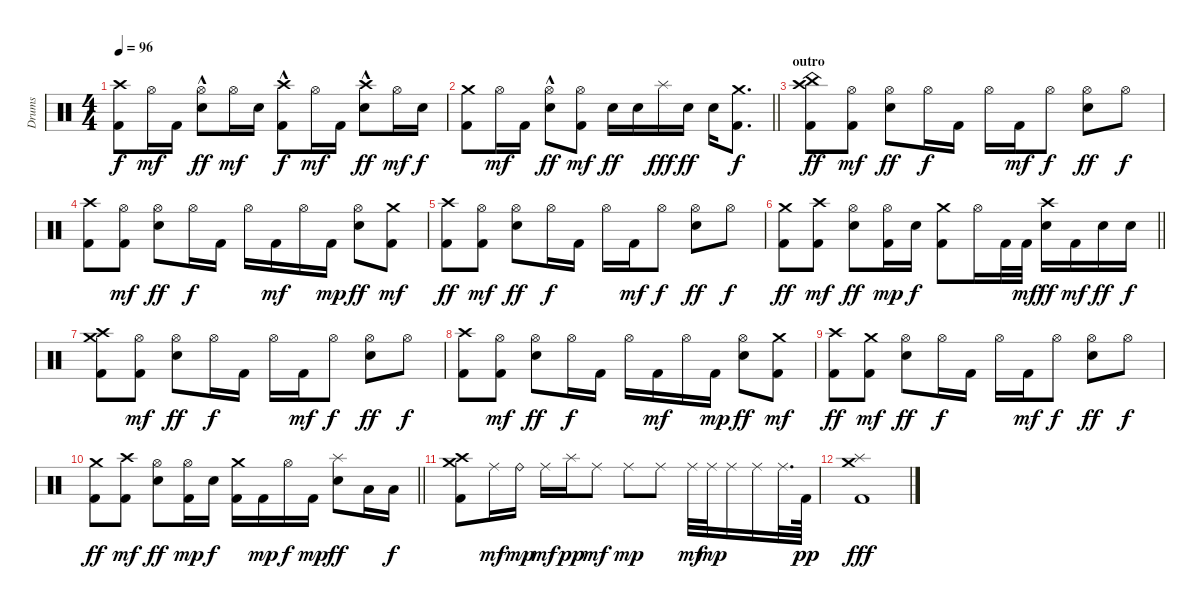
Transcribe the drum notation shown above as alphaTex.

\track ("Drums" "Drums") {instrument percussion}
\staff {score}
\articulation defaults
\ts (4 4)
\tempo 96
\clef neutral
\ks c
("Crash high (hit)" "Kick (hit) 2").8{dy f} "Hi-Hat (open)".16{dy mf} "Kick (hit) 2".16 ("Hi-Hat (open)"{hac} "Electric Snare (hit)").8{dy ff} "Hi-Hat (open)".16{dy mf} "Electric Snare (hit)".16 ("Crash high (hit)"{hac} "Kick (hit) 2").8{dy f} "Hi-Hat (open)".16{dy mf} "Kick (hit) 2".16 ("Crash high (hit)"{hac} "Electric Snare (hit)").8{dy ff} "Hi-Hat (open)".16{dy mf} "Electric Snare (hit)".16{dy f} |
\barLineRight lightlight
("Crash medium (hit)" "Kick (hit) 2").8 "Hi-Hat (open)".16{dy mf} "Kick (hit) 2".16 ("Hi-Hat (open)"{hac} "Electric Snare (hit)").8{dy ff} ("Hi-Hat (open)" "Kick (hit) 2").8{dy mf} "Electric Snare (hit)".16{dy ff} "Electric Snare (hit)".16 "Splash (hit)".16{dy fff} "Electric Snare (hit)".16{dy ff} "Electric Snare (hit)".16 ("Crash medium (hit)" "Kick (hit) 2").8{d dy f} |
\section ("" "outro")
("China (hit)" "Crash high (hit)" "Kick (hit) 2").8{dy ff} ("Hi-Hat (open)" "Kick (hit) 2").8{dy mf} ("Hi-Hat (open)" "Electric Snare (hit)").8{dy ff} "Hi-Hat (open)".16{dy f} "Kick (hit) 2".16 "Hi-Hat (open)".16 "Kick (hit) 2".16{dy mf} "Hi-Hat (open)".8{dy f} ("Hi-Hat (open)" "Electric Snare (hit)").8{dy ff} "Hi-Hat (open)".8{dy f} |
("Crash high (hit)" "Kick (hit) 2").8 ("Hi-Hat (open)" "Kick (hit) 2").8{dy mf} ("Hi-Hat (open)" "Electric Snare (hit)").8{dy ff} "Hi-Hat (open)".16{dy f} "Kick (hit) 2".16 "Hi-Hat (open)".16 "Kick (hit) 2".16{dy mf} "Hi-Hat (open)".16 "Kick (hit) 2".16{dy mp} ("Hi-Hat (open)" "Electric Snare (hit)").8{dy ff} ("Crash medium (hit)" "Kick (hit) 2").8{dy mf} |
("Crash high (hit)" "Kick (hit) 2").8{dy ff} ("Hi-Hat (open)" "Kick (hit) 2").8{dy mf} ("Hi-Hat (open)" "Electric Snare (hit)").8{dy ff} "Hi-Hat (open)".16{dy f} "Kick (hit) 2".16 "Hi-Hat (open)".16 "Kick (hit) 2".16{dy mf} "Hi-Hat (open)".8{dy f} ("Hi-Hat (open)" "Electric Snare (hit)").8{dy ff} "Hi-Hat (open)".8{dy f} |
\barLineRight lightlight
("Crash medium (hit)" "Kick (hit) 2").8{dy ff} ("Crash high (hit)" "Kick (hit) 2").8{dy mf} ("Hi-Hat (open)" "Electric Snare (hit)").8{dy ff} ("Hi-Hat (open)" "Kick (hit) 2").16{dy mp} "Electric Snare (hit)".16{dy f} ("Crash medium (hit)" "Kick (hit) 2").8 "Hi-Hat (open)".16 "Kick (hit) 2".32 "Kick (hit) 2".32{dy mf} ("Crash high (hit)" "Electric Snare (hit)").16{dy ff} "Kick (hit) 2".16{dy mf} "Electric Snare (hit)".16{dy ff} "Electric Snare (hit)".16{dy f} |
("Crash medium (hit)" "Crash high (hit)" "Kick (hit) 2").8 ("Hi-Hat (open)" "Kick (hit) 2").8{dy mf} ("Hi-Hat (open)" "Electric Snare (hit)").8{dy ff} "Hi-Hat (open)".16{dy f} "Kick (hit) 2".16 "Hi-Hat (open)".16 "Kick (hit) 2".16{dy mf} "Hi-Hat (open)".8{dy f} ("Hi-Hat (open)" "Electric Snare (hit)").8{dy ff} "Hi-Hat (open)".8{dy f} |
("Crash high (hit)" "Kick (hit) 2").8 ("Hi-Hat (open)" "Kick (hit) 2").8{dy mf} ("Hi-Hat (open)" "Electric Snare (hit)").8{dy ff} "Hi-Hat (open)".16{dy f} "Kick (hit) 2".16 "Hi-Hat (open)".16 "Kick (hit) 2".16{dy mf} "Hi-Hat (open)".16 "Kick (hit) 2".16{dy mp} ("Hi-Hat (open)" "Electric Snare (hit)").8{dy ff} ("Crash medium (hit)" "Kick (hit) 2").8{dy mf} |
("Crash high (hit)" "Kick (hit) 2").8{dy ff} ("Crash medium (hit)" "Kick (hit) 2").8{dy mf} ("Hi-Hat (open)" "Electric Snare (hit)").8{dy ff} "Hi-Hat (open)".16{dy f} "Kick (hit) 2".16 "Hi-Hat (open)".16 "Kick (hit) 2".16{dy mf} "Hi-Hat (open)".8{dy f} ("Hi-Hat (open)" "Electric Snare (hit)").8{dy ff} "Hi-Hat (open)".8{dy f} |
\barLineRight lightlight
("Crash medium (hit)" "Kick (hit) 2").8{dy ff} ("Crash high (hit)" "Kick (hit) 2").8{dy mf} ("Hi-Hat (open)" "Electric Snare (hit)").8{dy ff} ("Hi-Hat (open)" "Kick (hit) 2").16{dy mp} "Electric Snare (hit)".16{dy f} ("Crash medium (hit)" "Kick (hit) 2").16 "Kick (hit) 2".16{dy mp} "Hi-Hat (open)".16{dy f} "Kick (hit) 2".16{dy mp} ("Splash (hit)" "Electric Snare (hit)").8{dy ff} "Low Tom (hit)".16 "Low Tom (hit)".16{dy f} |
("Crash medium (hit)" "Crash high (hit)" "Kick (hit) 2").8 "Ride (middle)".16{dy mf} "Ride (bell)".16{dy mp} "Ride (middle)".16{dy mf} "Splash (hit)".16{dy pp} "Ride (middle)".8{dy mf} "Ride (middle)".8{dy mp} "Ride (middle)".8 "Ride (middle)".32{dy mf} "Ride (middle)".32{dy mp} "Ride (middle)".16 "Ride (middle)".16 "Ride (middle)".32{d} "Kick (hit) 2".64{dy pp} |
("Crash medium (hit)" "Splash (hit)" "Kick (hit) 2").1{dy fff}
